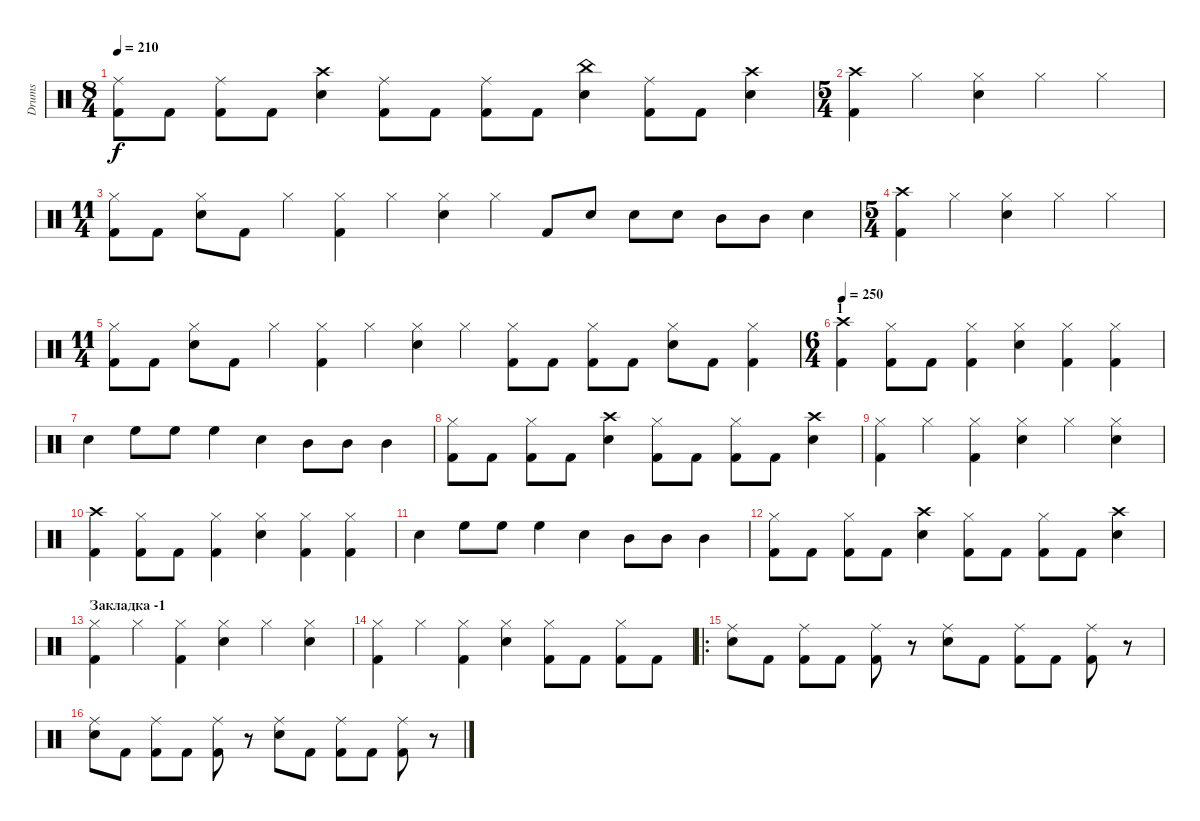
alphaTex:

\track ("Drums" "Drums") {instrument percussion}
\staff {score}
\articulation defaults
\ts (8 4)
\tempo 210
\clef neutral
\ks c
("Ride (middle)" "Kick (hit) 2").8{dy f} "Kick (hit) 2".8 ("Ride (middle)" "Kick (hit) 2").8 "Kick (hit) 2".8 ("Crash high (hit)" "Snare (hit) 2").4 ("Ride (middle)" "Kick (hit) 2").8 "Kick (hit) 2".8 ("Ride (middle)" "Kick (hit) 2").8 "Kick (hit) 2".8 ("China (hit)" "Snare (hit) 2").4 ("Ride (middle)" "Kick (hit) 2").8 "Kick (hit) 2".8 ("Crash high (hit)" "Snare (hit) 2").4 |
\ts (5 4)
("Crash high (hit)" "Kick (hit) 2").4 "Hi-Hat (closed)".4 ("Hi-Hat (closed)" "Snare (hit) 2").4 "Hi-Hat (closed)".4 "Hi-Hat (closed)".4 |
\ts (11 4)
("Hi-Hat (closed)" "Kick (hit) 2").8 "Kick (hit) 2".8 ("Hi-Hat (closed)" "Snare (hit) 2").8 "Kick (hit) 2".8 "Hi-Hat (closed)".4 ("Hi-Hat (closed)" "Kick (hit) 2").4 "Hi-Hat (closed)".4 ("Hi-Hat (closed)" "Snare (hit) 2").4 "Hi-Hat (closed)".4 "Kick (hit) 2".8 "Snare (hit) 2".8 "Snare (hit) 2".8 "Snare (hit) 2".8 "Mid Tom (hit)".8 "Mid Tom (hit)".8 "Snare (hit) 2".4 |
\ts (5 4)
("Crash high (hit)" "Kick (hit) 2").4 "Hi-Hat (closed)".4 ("Hi-Hat (closed)" "Snare (hit) 2").4 "Hi-Hat (closed)".4 "Hi-Hat (closed)".4 |
\ts (11 4)
("Hi-Hat (closed)" "Kick (hit) 2").8 "Kick (hit) 2".8 ("Hi-Hat (closed)" "Snare (hit) 2").8 "Kick (hit) 2".8 "Hi-Hat (closed)".4 ("Hi-Hat (closed)" "Kick (hit) 2").4 "Hi-Hat (closed)".4 ("Hi-Hat (closed)" "Snare (hit) 2").4 "Hi-Hat (closed)".4 ("Hi-Hat (closed)" "Kick (hit) 2").8 "Kick (hit) 2".8 ("Hi-Hat (closed)" "Kick (hit) 2").8 "Kick (hit) 2".8 ("Hi-Hat (closed)" "Snare (hit) 2").8 "Kick (hit) 2".8 ("Hi-Hat (closed)" "Kick (hit) 2").4 |
\ts (6 4)
\section ("" "1")
\tempo 250
("Crash high (hit)" "Kick (hit) 2").4 ("Hi-Hat (closed)" "Kick (hit) 2").8 "Kick (hit) 2".8 ("Hi-Hat (closed)" "Kick (hit) 2").4 ("Hi-Hat (closed)" "Snare (hit) 2").4 ("Hi-Hat (closed)" "Kick (hit) 2").4 ("Hi-Hat (closed)" "Kick (hit) 2").4 |
"Snare (hit) 2".4 "High Floor Tom (hit)".8 "High Floor Tom (hit)".8 "High Floor Tom (hit)".4 "Snare (hit) 2".4 "Mid Tom (hit)".8 "Mid Tom (hit)".8 "Mid Tom (hit)".4 |
("Hi-Hat (closed)" "Kick (hit) 2").8 "Kick (hit) 2".8 ("Hi-Hat (closed)" "Kick (hit) 2").8 "Kick (hit) 2".8 ("Crash high (hit)" "Snare (hit) 2").4 ("Hi-Hat (closed)" "Kick (hit) 2").8 "Kick (hit) 2".8 ("Hi-Hat (closed)" "Kick (hit) 2").8 "Kick (hit) 2".8 ("Crash high (hit)" "Snare (hit) 2").4 |
("Hi-Hat (closed)" "Kick (hit) 2").4 "Hi-Hat (closed)".4 ("Hi-Hat (closed)" "Kick (hit) 2").4 ("Hi-Hat (closed)" "Snare (hit) 2").4 "Hi-Hat (closed)".4 ("Hi-Hat (closed)" "Snare (hit) 2").4 |
("Crash high (hit)" "Kick (hit) 2").4 ("Hi-Hat (closed)" "Kick (hit) 2").8 "Kick (hit) 2".8 ("Hi-Hat (closed)" "Kick (hit) 2").4 ("Hi-Hat (closed)" "Snare (hit) 2").4 ("Hi-Hat (closed)" "Kick (hit) 2").4 ("Hi-Hat (closed)" "Kick (hit) 2").4 |
"Snare (hit) 2".4 "High Floor Tom (hit)".8 "High Floor Tom (hit)".8 "High Floor Tom (hit)".4 "Snare (hit) 2".4 "Mid Tom (hit)".8 "Mid Tom (hit)".8 "Mid Tom (hit)".4 |
("Hi-Hat (closed)" "Kick (hit) 2").8 "Kick (hit) 2".8 ("Hi-Hat (closed)" "Kick (hit) 2").8 "Kick (hit) 2".8 ("Crash high (hit)" "Snare (hit) 2").4 ("Hi-Hat (closed)" "Kick (hit) 2").8 "Kick (hit) 2".8 ("Hi-Hat (closed)" "Kick (hit) 2").8 "Kick (hit) 2".8 ("Crash high (hit)" "Snare (hit) 2").4 |
\section ("" "Закладка -1")
("Hi-Hat (closed)" "Kick (hit) 2").4 "Hi-Hat (closed)".4 ("Hi-Hat (closed)" "Kick (hit) 2").4 ("Hi-Hat (closed)" "Snare (hit) 2").4 "Hi-Hat (closed)".4 ("Hi-Hat (closed)" "Snare (hit) 2").4 |
("Hi-Hat (closed)" "Kick (hit) 2").4 "Hi-Hat (closed)".4 ("Hi-Hat (closed)" "Kick (hit) 2").4 ("Hi-Hat (closed)" "Snare (hit) 2").4 ("Hi-Hat (closed)" "Kick (hit) 2").8 "Kick (hit) 2".8 ("Hi-Hat (closed)" "Kick (hit) 2").8 "Kick (hit) 2".8 |
\ro
("Ride (middle)" "Snare (hit) 2").8 "Kick (hit) 2".8 ("Ride (middle)" "Kick (hit) 2").8 "Kick (hit) 2".8 ("Ride (middle)" "Kick (hit) 2").8 r.8 ("Ride (middle)" "Snare (hit) 2").8 "Kick (hit) 2".8 ("Ride (middle)" "Kick (hit) 2").8 "Kick (hit) 2".8 ("Ride (middle)" "Kick (hit) 2").8 r.8 |
("Ride (middle)" "Snare (hit) 2").8 "Kick (hit) 2".8 ("Ride (middle)" "Kick (hit) 2").8 "Kick (hit) 2".8 ("Ride (middle)" "Kick (hit) 2").8 r.8 ("Ride (middle)" "Snare (hit) 2").8 "Kick (hit) 2".8 ("Ride (middle)" "Kick (hit) 2").8 "Kick (hit) 2".8 ("Ride (middle)" "Kick (hit) 2").8 r.8
